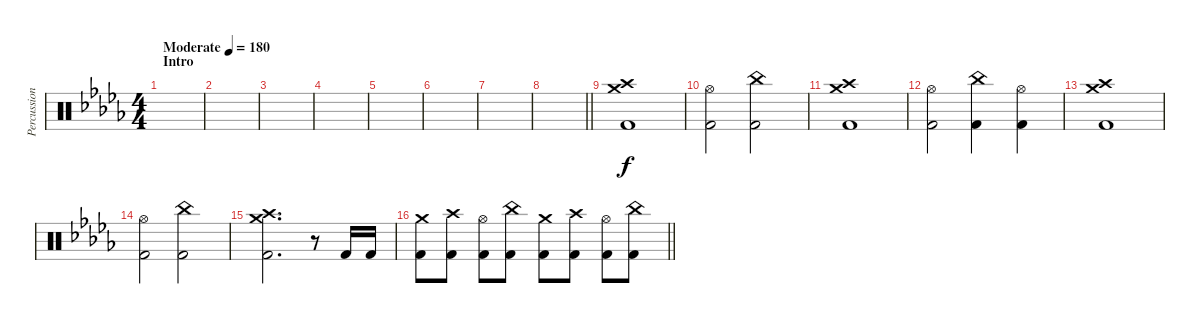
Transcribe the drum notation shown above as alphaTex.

\track ("Percussions" "Percussion") {instrument percussion}
\staff {score}
\articulation defaults
\ts (4 4)
\section ("" "Intro")
\tempo (180 "Moderate")
\clef neutral
\ks bbminor
|
|
|
|
|
|
|
\barLineRight lightlight
|
("Crash medium (hit)" "Crash high (hit)" "Kick (hit) 2").1 |
("Hi-Hat (open)" "Kick (hit) 2").2 ("China (hit)" "Kick (hit) 2").2 |
("Crash medium (hit)" "Crash high (hit)" "Kick (hit) 2").1 |
("Hi-Hat (open)" "Kick (hit) 2").2 ("China (hit)" "Kick (hit) 2").4 ("Hi-Hat (open)" "Kick (hit) 2").4 |
("Crash medium (hit)" "Crash high (hit)" "Kick (hit) 2").1 |
("Hi-Hat (open)" "Kick (hit) 2").2 ("China (hit)" "Kick (hit) 2").2 |
("Crash medium (hit)" "Crash high (hit)" "Kick (hit) 2").2{d} r.8 "Kick (hit) 2".16 "Kick (hit) 2".16 |
\barLineRight lightlight
("Crash medium (hit)" "Kick (hit) 2").8 ("Crash high (hit)" "Kick (hit) 2").8 ("Hi-Hat (open)" "Kick (hit) 2").8 ("China (hit)" "Kick (hit) 2").8 ("Crash medium (hit)" "Kick (hit) 2").8 ("Crash high (hit)" "Kick (hit) 2").8 ("Hi-Hat (open)" "Kick (hit) 2").8 ("China (hit)" "Kick (hit) 2").8
